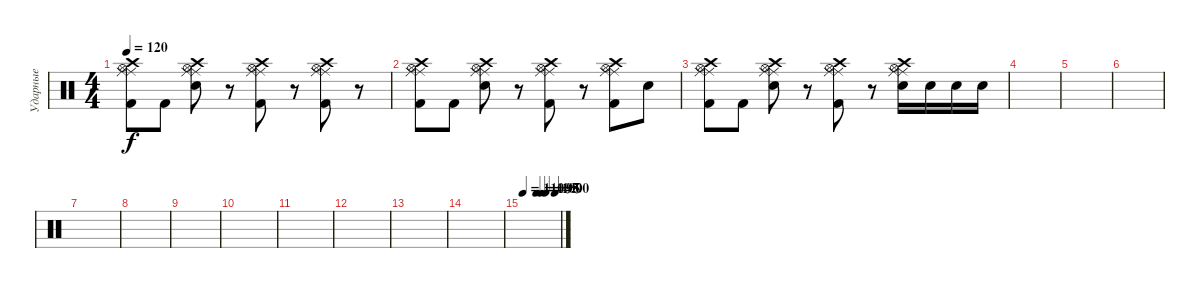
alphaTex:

\track ("Ударные" "Ударные") {instrument percussion}
\staff {score}
\articulation defaults
\ts (4 4)
\tempo 120
\clef neutral
\ks c
("Kick (hit) 2" "Ride (middle)" "Ride (middle)" "Hi-Hat (open)" "Crash high (hit)").8{dy f} "Kick (hit) 2".8 ("Electric Snare (hit)" "Ride (middle)" "Ride (middle)" "Hi-Hat (open)" "Crash high (hit)").8 r.8 ("Kick (hit) 2" "Ride (middle)" "Ride (middle)" "Hi-Hat (open)" "Crash high (hit)").8 r.8 ("Kick (hit) 2" "Ride (middle)" "Ride (middle)" "Hi-Hat (open)" "Crash high (hit)").8 r.8 |
("Kick (hit) 2" "Ride (middle)" "Ride (middle)" "Hi-Hat (open)" "Crash high (hit)").8 "Kick (hit) 2".8 ("Electric Snare (hit)" "Ride (middle)" "Ride (middle)" "Hi-Hat (open)" "Crash high (hit)").8 r.8 ("Kick (hit) 2" "Ride (middle)" "Ride (middle)" "Hi-Hat (open)" "Crash high (hit)").8 r.8 ("Kick (hit) 2" "Ride (middle)" "Ride (middle)" "Hi-Hat (open)" "Crash high (hit)").8 "Electric Snare (hit)".8 |
("Kick (hit) 2" "Ride (middle)" "Ride (middle)" "Hi-Hat (open)" "Crash high (hit)").8 "Kick (hit) 2".8 ("Electric Snare (hit)" "Ride (middle)" "Ride (middle)" "Hi-Hat (open)" "Crash high (hit)").8 r.8 ("Kick (hit) 2" "Ride (middle)" "Ride (middle)" "Hi-Hat (open)" "Crash high (hit)").8 r.8 ("Electric Snare (hit)" "Ride (middle)" "Ride (middle)" "Hi-Hat (open)" "Crash high (hit)").16 "Electric Snare (hit)".16 "Electric Snare (hit)".16 "Electric Snare (hit)".16 |
|
|
|
|
|
|
|
|
|
|
|
\tempo 110
\tempo (105 0.375)
\tempo (100 0.5)
\tempo (95 0.625)
\tempo (90 0.875)
